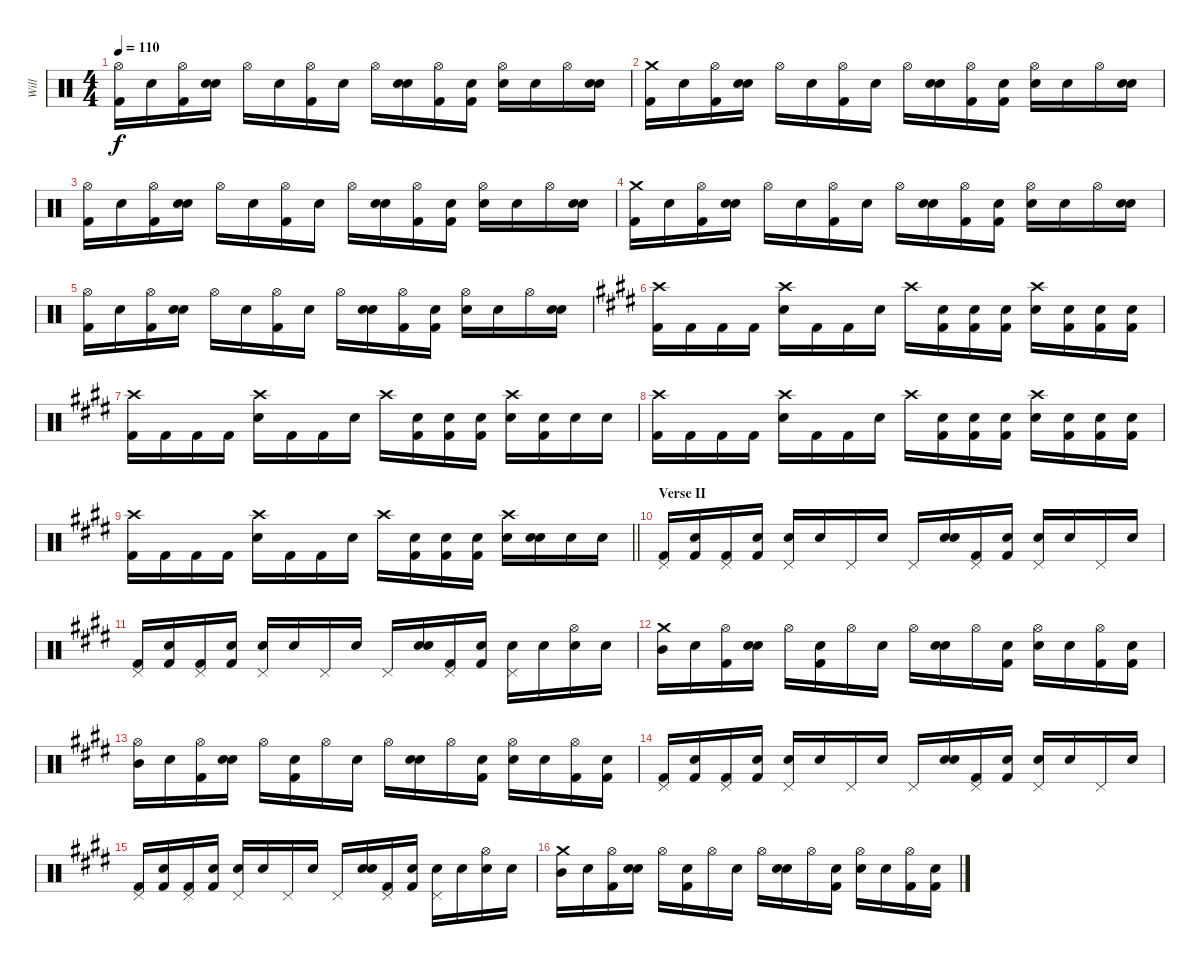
\track ("Will" "Will") {instrument percussion}
\staff {score}
\articulation defaults
\ts (4 4)
\tempo 110
\clef neutral
\ks c
("Hi-Hat (open)" "Kick (hit) 2").16{dy f} "Snare (hit)".16 ("Hi-Hat (open)" "Kick (hit) 2").16 ("Snare (hit)" "Electric Snare (hit)").16 "Hi-Hat (open)".16 "Snare (hit)".16 ("Hi-Hat (open)" "Kick (hit) 2").16 "Snare (hit)".16 "Hi-Hat (open)".16 ("Snare (hit)" "Electric Snare (hit)").16 ("Hi-Hat (open)" "Kick (hit) 2").16 ("Snare (hit)" "Kick (hit) 2").16 ("Hi-Hat (open)" "Electric Snare (hit)").16 "Snare (hit)".16 "Hi-Hat (open)".16 ("Snare (hit)" "Electric Snare (hit)").16 |
("Crash medium (hit)" "Kick (hit) 2").16 "Snare (hit)".16 ("Hi-Hat (open)" "Kick (hit) 2").16 ("Snare (hit)" "Electric Snare (hit)").16 "Hi-Hat (open)".16 "Snare (hit)".16 ("Hi-Hat (open)" "Kick (hit) 2").16 "Snare (hit)".16 "Hi-Hat (open)".16 ("Snare (hit)" "Electric Snare (hit)").16 ("Hi-Hat (open)" "Kick (hit) 2").16 ("Snare (hit)" "Kick (hit) 2").16 ("Hi-Hat (open)" "Electric Snare (hit)").16 "Snare (hit)".16 "Hi-Hat (open)".16 ("Snare (hit)" "Electric Snare (hit)").16 |
("Hi-Hat (open)" "Kick (hit) 2").16 "Snare (hit)".16 ("Hi-Hat (open)" "Kick (hit) 2").16 ("Snare (hit)" "Electric Snare (hit)").16 "Hi-Hat (open)".16 "Snare (hit)".16 ("Hi-Hat (open)" "Kick (hit) 2").16 "Snare (hit)".16 "Hi-Hat (open)".16 ("Snare (hit)" "Electric Snare (hit)").16 ("Hi-Hat (open)" "Kick (hit) 2").16 ("Snare (hit)" "Kick (hit) 2").16 ("Hi-Hat (open)" "Electric Snare (hit)").16 "Snare (hit)".16 "Hi-Hat (open)".16 ("Snare (hit)" "Electric Snare (hit)").16 |
("Crash medium (hit)" "Kick (hit) 2").16 "Snare (hit)".16 ("Hi-Hat (open)" "Kick (hit) 2").16 ("Snare (hit)" "Electric Snare (hit)").16 "Hi-Hat (open)".16 "Snare (hit)".16 ("Hi-Hat (open)" "Kick (hit) 2").16 "Snare (hit)".16 "Hi-Hat (open)".16 ("Snare (hit)" "Electric Snare (hit)").16 ("Hi-Hat (open)" "Kick (hit) 2").16 ("Snare (hit)" "Kick (hit) 2").16 ("Hi-Hat (open)" "Electric Snare (hit)").16 "Snare (hit)".16 "Hi-Hat (open)".16 ("Snare (hit)" "Electric Snare (hit)").16 |
("Hi-Hat (open)" "Kick (hit) 2").16 "Snare (hit)".16 ("Hi-Hat (open)" "Kick (hit) 2").16 ("Snare (hit)" "Electric Snare (hit)").16 "Hi-Hat (open)".16 "Snare (hit)".16 ("Hi-Hat (open)" "Kick (hit) 2").16 "Snare (hit)".16 "Hi-Hat (open)".16 ("Snare (hit)" "Electric Snare (hit)").16 ("Hi-Hat (open)" "Kick (hit) 2").16 ("Snare (hit)" "Kick (hit) 2").16 ("Hi-Hat (open)" "Electric Snare (hit)").16 "Snare (hit)".16 "Hi-Hat (open)".16 ("Snare (hit)" "Electric Snare (hit)").16 |
\ks e
("Crash high (hit)" "Kick (hit) 2").16 "Kick (hit) 2".16 "Kick (hit) 2".16 "Kick (hit) 2".16 ("Crash high (hit)" "Electric Snare (hit)").16 "Kick (hit) 2".16 "Kick (hit) 2".16 "Snare (hit)".16 "Crash high (hit)".16 ("Snare (hit)" "Kick (hit) 2").16 ("Snare (hit)" "Kick (hit) 2").16 ("Snare (hit)" "Kick (hit) 2").16 ("Crash high (hit)" "Electric Snare (hit)").16 ("Snare (hit)" "Kick (hit) 2").16 ("Snare (hit)" "Kick (hit) 2").16 ("Snare (hit)" "Kick (hit) 2").16 |
("Crash high (hit)" "Kick (hit) 2").16 "Kick (hit) 2".16 "Kick (hit) 2".16 "Kick (hit) 2".16 ("Crash high (hit)" "Electric Snare (hit)").16 "Kick (hit) 2".16 "Kick (hit) 2".16 "Snare (hit)".16 "Crash high (hit)".16 ("Snare (hit)" "Kick (hit) 2").16 ("Snare (hit)" "Kick (hit) 2").16 ("Snare (hit)" "Kick (hit) 2").16 ("Crash high (hit)" "Electric Snare (hit)").16 ("Snare (hit)" "Kick (hit) 2").16 "Snare (hit)".16 "Snare (hit)".16 |
("Crash high (hit)" "Kick (hit) 2").16 "Kick (hit) 2".16 "Kick (hit) 2".16 "Kick (hit) 2".16 ("Crash high (hit)" "Electric Snare (hit)").16 "Kick (hit) 2".16 "Kick (hit) 2".16 "Snare (hit)".16 "Crash high (hit)".16 ("Snare (hit)" "Kick (hit) 2").16 ("Snare (hit)" "Kick (hit) 2").16 ("Snare (hit)" "Kick (hit) 2").16 ("Crash high (hit)" "Electric Snare (hit)").16 ("Snare (hit)" "Kick (hit) 2").16 ("Snare (hit)" "Kick (hit) 2").16 ("Snare (hit)" "Kick (hit) 2").16 |
\barLineRight lightlight
("Crash high (hit)" "Kick (hit) 2").16 "Kick (hit) 2".16 "Kick (hit) 2".16 "Kick (hit) 2".16 ("Crash high (hit)" "Electric Snare (hit)").16 "Kick (hit) 2".16 "Kick (hit) 2".16 "Snare (hit)".16 "Crash high (hit)".16 ("Snare (hit)" "Kick (hit) 2").16 ("Snare (hit)" "Kick (hit) 2").16 ("Snare (hit)" "Kick (hit) 2").16 ("Crash high (hit)" "Electric Snare (hit)").16 ("Snare (hit)" "Electric Snare (hit)").16 "Snare (hit)".16 "Snare (hit)".16 |
\section ("" "Verse II")
("Pedal Hi-Hat (hit)" "Kick (hit) 2").16{volume 10} ("Snare (hit)" "Kick (hit) 2").16 ("Pedal Hi-Hat (hit)" "Kick (hit) 2").16 ("Snare (hit)" "Kick (hit) 2").16 ("Pedal Hi-Hat (hit)" "Electric Snare (hit)").16 "Snare (hit)".16 "Pedal Hi-Hat (hit)".16 "Snare (hit)".16 "Pedal Hi-Hat (hit)".16 ("Snare (hit)" "Electric Snare (hit)").16 ("Pedal Hi-Hat (hit)" "Kick (hit) 2").16 ("Snare (hit)" "Kick (hit) 2").16 ("Pedal Hi-Hat (hit)" "Electric Snare (hit)").16 "Snare (hit)".16 "Pedal Hi-Hat (hit)".16 "Snare (hit)".16 |
("Pedal Hi-Hat (hit)" "Kick (hit) 2").16 ("Snare (hit)" "Kick (hit) 2").16 ("Pedal Hi-Hat (hit)" "Kick (hit) 2").16 ("Snare (hit)" "Kick (hit) 2").16 ("Pedal Hi-Hat (hit)" "Electric Snare (hit)").16 "Snare (hit)".16 "Pedal Hi-Hat (hit)".16 "Snare (hit)".16 "Pedal Hi-Hat (hit)".16 ("Snare (hit)" "Electric Snare (hit)").16 ("Pedal Hi-Hat (hit)" "Kick (hit) 2").16 ("Snare (hit)" "Kick (hit) 2").16 ("Pedal Hi-Hat (hit)" "Electric Snare (hit)").16 "Snare (hit)".16 ("Hi-Hat (open)" "Electric Snare (hit)").16 "Snare (hit)".16 |
("Crash medium (hit)" "Mid Tom (hit)").16{volume 13} "Snare (hit)".16 ("Hi-Hat (open)" "Kick (hit) 2").16 ("Snare (hit)" "Electric Snare (hit)").16 "Hi-Hat (open)".16 ("Snare (hit)" "Kick (hit) 2").16 "Hi-Hat (open)".16 "Snare (hit)".16 "Hi-Hat (open)".16 ("Snare (hit)" "Electric Snare (hit)").16 "Hi-Hat (open)".16 ("Snare (hit)" "Kick (hit) 2").16 ("Hi-Hat (open)" "Electric Snare (hit)").16 "Snare (hit)".16 ("Hi-Hat (open)" "Kick (hit) 2").16 ("Snare (hit)" "Kick (hit) 2").16 |
("Hi-Hat (open)" "Mid Tom (hit)").16 "Snare (hit)".16 ("Hi-Hat (open)" "Kick (hit) 2").16 ("Snare (hit)" "Electric Snare (hit)").16 "Hi-Hat (open)".16 ("Snare (hit)" "Kick (hit) 2").16 "Hi-Hat (open)".16 "Snare (hit)".16 "Hi-Hat (open)".16 ("Snare (hit)" "Electric Snare (hit)").16 "Hi-Hat (open)".16 ("Snare (hit)" "Kick (hit) 2").16 ("Hi-Hat (open)" "Electric Snare (hit)").16 "Snare (hit)".16 ("Hi-Hat (open)" "Kick (hit) 2").16 ("Snare (hit)" "Kick (hit) 2").16 |
("Pedal Hi-Hat (hit)" "Kick (hit) 2").16{volume 10} ("Snare (hit)" "Kick (hit) 2").16 ("Pedal Hi-Hat (hit)" "Kick (hit) 2").16 ("Snare (hit)" "Kick (hit) 2").16 ("Pedal Hi-Hat (hit)" "Electric Snare (hit)").16 "Snare (hit)".16 "Pedal Hi-Hat (hit)".16 "Snare (hit)".16 "Pedal Hi-Hat (hit)".16 ("Snare (hit)" "Electric Snare (hit)").16 ("Pedal Hi-Hat (hit)" "Kick (hit) 2").16 ("Snare (hit)" "Kick (hit) 2").16 ("Pedal Hi-Hat (hit)" "Electric Snare (hit)").16 "Snare (hit)".16 "Pedal Hi-Hat (hit)".16 "Snare (hit)".16 |
("Pedal Hi-Hat (hit)" "Kick (hit) 2").16 ("Snare (hit)" "Kick (hit) 2").16 ("Pedal Hi-Hat (hit)" "Kick (hit) 2").16 ("Snare (hit)" "Kick (hit) 2").16 ("Pedal Hi-Hat (hit)" "Electric Snare (hit)").16 "Snare (hit)".16 "Pedal Hi-Hat (hit)".16 "Snare (hit)".16 "Pedal Hi-Hat (hit)".16 ("Snare (hit)" "Electric Snare (hit)").16 ("Pedal Hi-Hat (hit)" "Kick (hit) 2").16 ("Snare (hit)" "Kick (hit) 2").16 ("Pedal Hi-Hat (hit)" "Electric Snare (hit)").16 "Snare (hit)".16 ("Hi-Hat (open)" "Electric Snare (hit)").16 "Snare (hit)".16 |
("Crash medium (hit)" "Mid Tom (hit)").16{volume 13} "Snare (hit)".16 ("Hi-Hat (open)" "Kick (hit) 2").16 ("Snare (hit)" "Electric Snare (hit)").16 "Hi-Hat (open)".16 ("Snare (hit)" "Kick (hit) 2").16 "Hi-Hat (open)".16 "Snare (hit)".16 "Hi-Hat (open)".16 ("Snare (hit)" "Electric Snare (hit)").16 "Hi-Hat (open)".16 ("Snare (hit)" "Kick (hit) 2").16 ("Hi-Hat (open)" "Electric Snare (hit)").16 "Snare (hit)".16 ("Hi-Hat (open)" "Kick (hit) 2").16 ("Snare (hit)" "Kick (hit) 2").16
